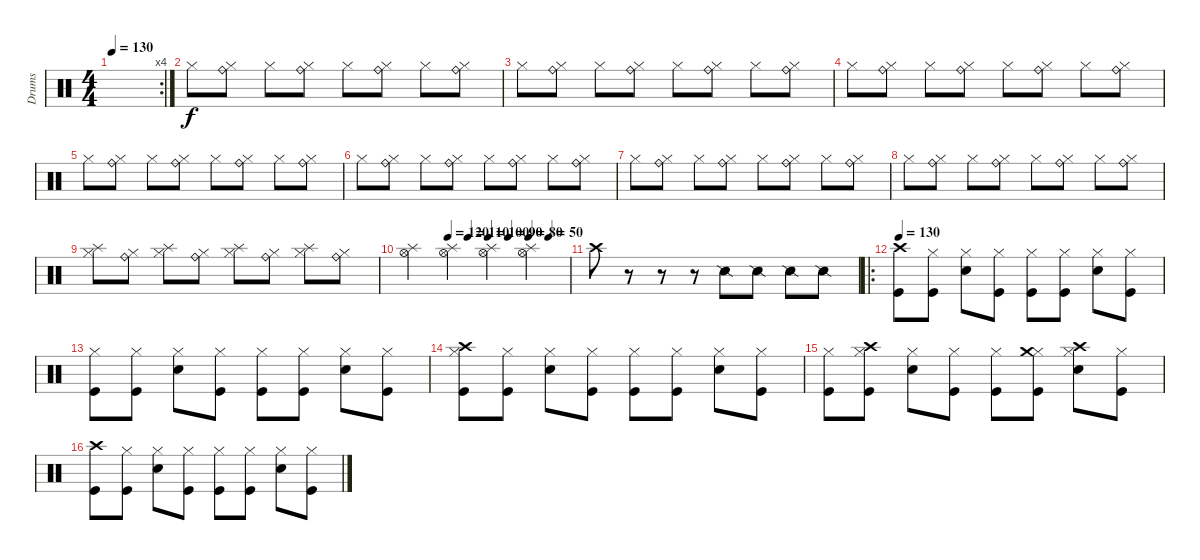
\track ("Drums" "Drums") {instrument percussion}
\staff {score}
\articulation defaults
\rc 4
\ts (4 4)
\tempo 130
\clef neutral
\ks c
|
"Hi-Hat (closed)".8 ("Hi-Hat (closed)" "Ride (bell)").8 "Hi-Hat (closed)".8 ("Hi-Hat (closed)" "Ride (bell)").8 "Hi-Hat (closed)".8 ("Hi-Hat (closed)" "Ride (bell)").8 "Hi-Hat (closed)".8 ("Hi-Hat (closed)" "Ride (bell)").8 |
"Hi-Hat (closed)".8 ("Hi-Hat (closed)" "Ride (bell)").8 "Hi-Hat (closed)".8 ("Hi-Hat (closed)" "Ride (bell)").8 "Hi-Hat (closed)".8 ("Hi-Hat (closed)" "Ride (bell)").8 "Hi-Hat (closed)".8 ("Hi-Hat (closed)" "Ride (bell)").8 |
"Hi-Hat (closed)".8 ("Hi-Hat (closed)" "Ride (bell)").8 "Hi-Hat (closed)".8 ("Hi-Hat (closed)" "Ride (bell)").8 "Hi-Hat (closed)".8 ("Hi-Hat (closed)" "Ride (bell)").8 "Hi-Hat (closed)".8 ("Hi-Hat (closed)" "Ride (bell)").8 |
"Hi-Hat (closed)".8 ("Hi-Hat (closed)" "Ride (bell)").8 "Hi-Hat (closed)".8 ("Hi-Hat (closed)" "Ride (bell)").8 "Hi-Hat (closed)".8 ("Hi-Hat (closed)" "Ride (bell)").8 "Hi-Hat (closed)".8 ("Hi-Hat (closed)" "Ride (bell)").8 |
"Hi-Hat (closed)".8 ("Hi-Hat (closed)" "Ride (bell)").8 "Hi-Hat (closed)".8 ("Hi-Hat (closed)" "Ride (bell)").8 "Hi-Hat (closed)".8 ("Hi-Hat (closed)" "Ride (bell)").8 "Hi-Hat (closed)".8 ("Hi-Hat (closed)" "Ride (bell)").8 |
"Hi-Hat (closed)".8 ("Hi-Hat (closed)" "Ride (bell)").8 "Hi-Hat (closed)".8 ("Hi-Hat (closed)" "Ride (bell)").8 "Hi-Hat (closed)".8 ("Hi-Hat (closed)" "Ride (bell)").8 "Hi-Hat (closed)".8 ("Hi-Hat (closed)" "Ride (bell)").8 |
"Hi-Hat (closed)".8 ("Hi-Hat (closed)" "Ride (bell)").8 "Hi-Hat (closed)".8 ("Hi-Hat (closed)" "Ride (bell)").8 "Hi-Hat (closed)".8 ("Hi-Hat (closed)" "Ride (bell)").8 "Hi-Hat (closed)".8 ("Hi-Hat (closed)" "Ride (bell)").8 |
("Hi-Hat (closed)" "Splash (hit)").8 ("Hi-Hat (closed)" "Ride (bell)").8 ("Hi-Hat (closed)" "Splash (hit)").8 ("Hi-Hat (closed)" "Ride (bell)").8 ("Hi-Hat (closed)" "Splash (hit)").8 ("Hi-Hat (closed)" "Ride (bell)").8 ("Hi-Hat (closed)" "Splash (hit)").8 ("Hi-Hat (closed)" "Ride (bell)").8 |
\tempo (120 0.25)
\tempo (110 0.375)
\tempo (100 0.5)
\tempo (90 0.625)
\tempo (80 0.75)
\tempo (50 0.875)
("Hi-Hat (open)" "Splash (hit)").4 ("Hi-Hat (open)" "Splash (hit)").4 ("Hi-Hat (open)" "Splash (hit)").4 ("Hi-Hat (open)" "Splash (hit)").4 |
"Crash high (hit)".8 r.8 r.8 r.8 "Snare (side stick) 2".8 "Snare (side stick) 2".8 "Snare (side stick) 2".8 "Snare (side stick) 2".8 |
\ro
\tempo 130
("Crash high (hit)" "Kick (hit)").8 ("Kick (hit)" "Hi-Hat (closed)").8 ("Electric Snare (hit)" "Hi-Hat (closed)").8 ("Kick (hit)" "Hi-Hat (closed)").8 ("Kick (hit)" "Hi-Hat (closed)").8 ("Kick (hit)" "Hi-Hat (closed)").8 ("Electric Snare (hit)" "Hi-Hat (closed)").8 ("Kick (hit)" "Hi-Hat (closed)").8 |
("Kick (hit)" "Hi-Hat (closed)").8 ("Kick (hit)" "Hi-Hat (closed)").8 ("Electric Snare (hit)" "Hi-Hat (closed)").8 ("Kick (hit)" "Hi-Hat (closed)").8 ("Kick (hit)" "Hi-Hat (closed)").8 ("Kick (hit)" "Hi-Hat (closed)").8 ("Electric Snare (hit)" "Hi-Hat (closed)").8 ("Kick (hit)" "Hi-Hat (closed)").8 |
("Crash high (hit)" "Kick (hit)" "Hi-Hat (closed)").8 ("Kick (hit)" "Hi-Hat (closed)").8 ("Electric Snare (hit)" "Hi-Hat (closed)").8 ("Kick (hit)" "Hi-Hat (closed)").8 ("Kick (hit)" "Hi-Hat (closed)").8 ("Kick (hit)" "Hi-Hat (closed)").8 ("Electric Snare (hit)" "Hi-Hat (closed)").8 ("Kick (hit)" "Hi-Hat (closed)").8 |
("Kick (hit)" "Hi-Hat (closed)").8 ("Kick (hit)" "Hi-Hat (closed)" "Crash high (hit)").8 ("Electric Snare (hit)" "Hi-Hat (closed)").8 ("Kick (hit)" "Hi-Hat (closed)").8 ("Kick (hit)" "Hi-Hat (closed)").8 ("Kick (hit)" "Hi-Hat (closed)" "Crash medium (hit)").8 ("Crash high (hit)" "Electric Snare (hit)" "Hi-Hat (closed)").8 ("Kick (hit)" "Hi-Hat (closed)").8 |
("Crash high (hit)" "Kick (hit)").8 ("Kick (hit)" "Hi-Hat (closed)").8 ("Electric Snare (hit)" "Hi-Hat (closed)").8 ("Kick (hit)" "Hi-Hat (closed)").8 ("Kick (hit)" "Hi-Hat (closed)").8 ("Kick (hit)" "Hi-Hat (closed)").8 ("Electric Snare (hit)" "Hi-Hat (closed)").8 ("Kick (hit)" "Hi-Hat (closed)").8
